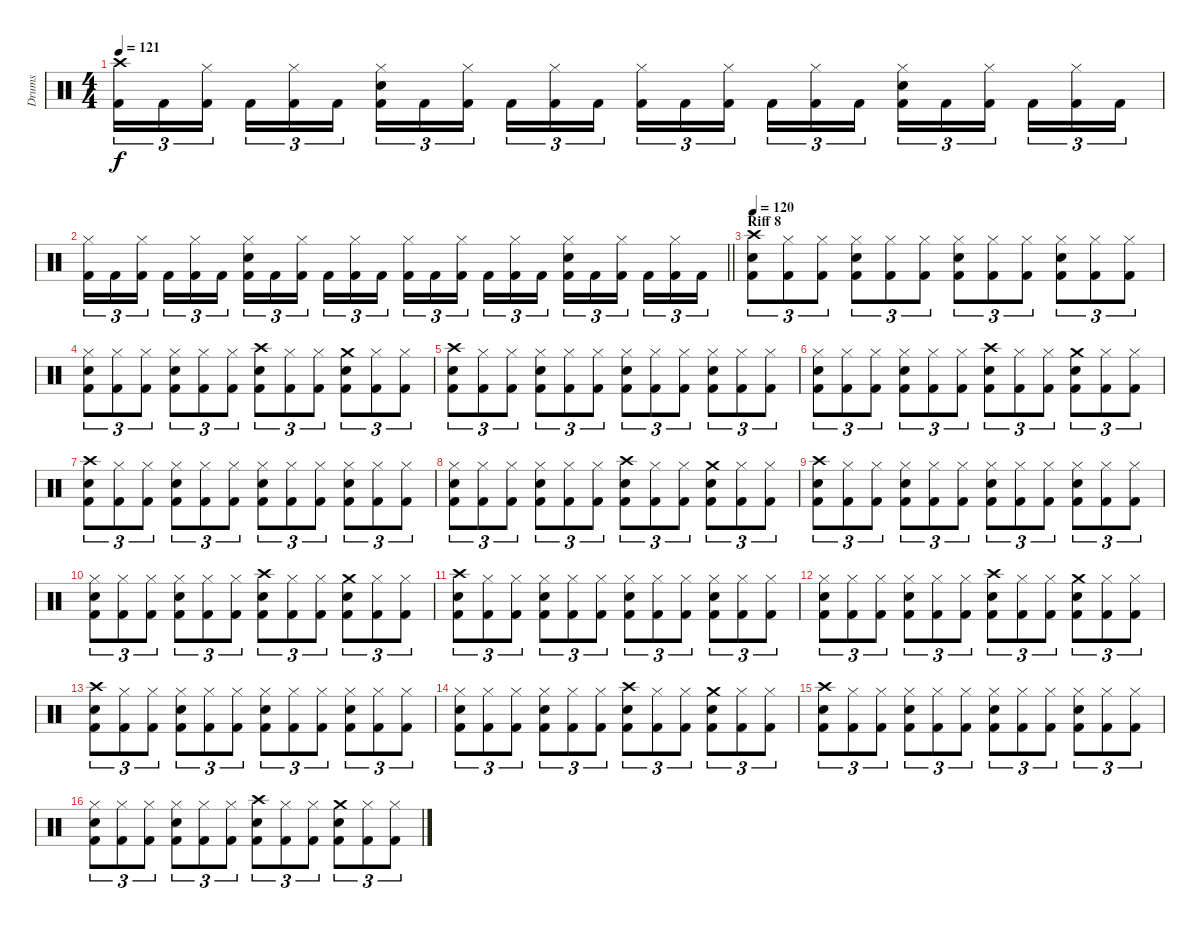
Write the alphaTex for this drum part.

\track ("Drums" "Drums") {instrument percussion}
\staff {score}
\articulation defaults
\ts (4 4)
\tempo 121
\clef neutral
\ks c
("Kick (hit) 2" "Crash high (hit)").16{tu (3 2) dy f} "Kick (hit) 2".16{tu (3 2)} ("Kick (hit) 2" "Hi-Hat (closed)").16{tu (3 2) beam splitsecondary} "Kick (hit) 2".16{tu (3 2)} ("Kick (hit) 2" "Hi-Hat (closed)").16{tu (3 2)} "Kick (hit) 2".16{tu (3 2)} ("Kick (hit) 2" "Hi-Hat (closed)" "Snare (hit) 2").16{tu (3 2)} "Kick (hit) 2".16{tu (3 2)} ("Kick (hit) 2" "Hi-Hat (closed)").16{tu (3 2) beam splitsecondary} "Kick (hit) 2".16{tu (3 2)} ("Kick (hit) 2" "Hi-Hat (closed)").16{tu (3 2)} "Kick (hit) 2".16{tu (3 2)} ("Kick (hit) 2" "Hi-Hat (closed)").16{tu (3 2)} "Kick (hit) 2".16{tu (3 2)} ("Kick (hit) 2" "Hi-Hat (closed)").16{tu (3 2) beam splitsecondary} "Kick (hit) 2".16{tu (3 2)} ("Kick (hit) 2" "Hi-Hat (closed)").16{tu (3 2)} "Kick (hit) 2".16{tu (3 2)} ("Kick (hit) 2" "Hi-Hat (closed)" "Snare (hit) 2").16{tu (3 2)} "Kick (hit) 2".16{tu (3 2)} ("Kick (hit) 2" "Hi-Hat (closed)").16{tu (3 2) beam splitsecondary} "Kick (hit) 2".16{tu (3 2)} ("Kick (hit) 2" "Hi-Hat (closed)").16{tu (3 2)} "Kick (hit) 2".16{tu (3 2)} |
\barLineRight lightlight
("Kick (hit) 2" "Hi-Hat (closed)").16{tu (3 2)} "Kick (hit) 2".16{tu (3 2)} ("Kick (hit) 2" "Hi-Hat (closed)").16{tu (3 2) beam splitsecondary} "Kick (hit) 2".16{tu (3 2)} ("Kick (hit) 2" "Hi-Hat (closed)").16{tu (3 2)} "Kick (hit) 2".16{tu (3 2)} ("Kick (hit) 2" "Hi-Hat (closed)" "Snare (hit) 2").16{tu (3 2)} "Kick (hit) 2".16{tu (3 2)} ("Kick (hit) 2" "Hi-Hat (closed)").16{tu (3 2) beam splitsecondary} "Kick (hit) 2".16{tu (3 2)} ("Kick (hit) 2" "Hi-Hat (closed)").16{tu (3 2)} "Kick (hit) 2".16{tu (3 2)} ("Kick (hit) 2" "Hi-Hat (closed)").16{tu (3 2)} "Kick (hit) 2".16{tu (3 2)} ("Kick (hit) 2" "Hi-Hat (closed)").16{tu (3 2) beam splitsecondary} "Kick (hit) 2".16{tu (3 2)} ("Kick (hit) 2" "Hi-Hat (closed)").16{tu (3 2)} "Kick (hit) 2".16{tu (3 2)} ("Kick (hit) 2" "Hi-Hat (closed)" "Snare (hit) 2").16{tu (3 2)} "Kick (hit) 2".16{tu (3 2)} ("Kick (hit) 2" "Hi-Hat (closed)").16{tu (3 2) beam splitsecondary} "Kick (hit) 2".16{tu (3 2)} ("Kick (hit) 2" "Hi-Hat (closed)").16{tu (3 2)} "Kick (hit) 2".16{tu (3 2)} |
\section ("" "Riff 8")
\tempo 120
("Kick (hit) 2" "Crash high (hit)" "Snare (hit) 2").8{tu (3 2)} ("Kick (hit) 2" "Hi-Hat (closed)").8{tu (3 2)} ("Kick (hit) 2" "Hi-Hat (closed)").8{tu (3 2)} ("Kick (hit) 2" "Snare (hit) 2" "Hi-Hat (closed)").8{tu (3 2)} ("Kick (hit) 2" "Hi-Hat (closed)").8{tu (3 2)} ("Kick (hit) 2" "Hi-Hat (closed)").8{tu (3 2)} ("Kick (hit) 2" "Snare (hit) 2" "Hi-Hat (closed)").8{tu (3 2)} ("Kick (hit) 2" "Hi-Hat (closed)").8{tu (3 2)} ("Kick (hit) 2" "Hi-Hat (closed)").8{tu (3 2)} ("Kick (hit) 2" "Snare (hit) 2" "Hi-Hat (closed)").8{tu (3 2)} ("Kick (hit) 2" "Hi-Hat (closed)").8{tu (3 2)} ("Kick (hit) 2" "Hi-Hat (closed)").8{tu (3 2)} |
("Kick (hit) 2" "Snare (hit) 2" "Hi-Hat (closed)").8{tu (3 2)} ("Kick (hit) 2" "Hi-Hat (closed)").8{tu (3 2)} ("Kick (hit) 2" "Hi-Hat (closed)").8{tu (3 2)} ("Kick (hit) 2" "Snare (hit) 2" "Hi-Hat (closed)").8{tu (3 2)} ("Kick (hit) 2" "Hi-Hat (closed)").8{tu (3 2)} ("Kick (hit) 2" "Hi-Hat (closed)").8{tu (3 2)} ("Kick (hit) 2" "Crash high (hit)" "Snare (hit) 2").8{tu (3 2)} ("Kick (hit) 2" "Hi-Hat (closed)").8{tu (3 2)} ("Kick (hit) 2" "Hi-Hat (closed)").8{tu (3 2)} ("Kick (hit) 2" "Crash medium (hit)" "Snare (hit) 2").8{tu (3 2)} ("Kick (hit) 2" "Hi-Hat (closed)").8{tu (3 2)} ("Kick (hit) 2" "Hi-Hat (closed)").8{tu (3 2)} |
("Kick (hit) 2" "Crash high (hit)" "Snare (hit) 2").8{tu (3 2)} ("Kick (hit) 2" "Hi-Hat (closed)").8{tu (3 2)} ("Kick (hit) 2" "Hi-Hat (closed)").8{tu (3 2)} ("Kick (hit) 2" "Snare (hit) 2" "Hi-Hat (closed)").8{tu (3 2)} ("Kick (hit) 2" "Hi-Hat (closed)").8{tu (3 2)} ("Kick (hit) 2" "Hi-Hat (closed)").8{tu (3 2)} ("Kick (hit) 2" "Snare (hit) 2" "Hi-Hat (closed)").8{tu (3 2)} ("Kick (hit) 2" "Hi-Hat (closed)").8{tu (3 2)} ("Kick (hit) 2" "Hi-Hat (closed)").8{tu (3 2)} ("Kick (hit) 2" "Snare (hit) 2" "Hi-Hat (closed)").8{tu (3 2)} ("Kick (hit) 2" "Hi-Hat (closed)").8{tu (3 2)} ("Kick (hit) 2" "Hi-Hat (closed)").8{tu (3 2)} |
("Kick (hit) 2" "Snare (hit) 2" "Hi-Hat (closed)").8{tu (3 2)} ("Kick (hit) 2" "Hi-Hat (closed)").8{tu (3 2)} ("Kick (hit) 2" "Hi-Hat (closed)").8{tu (3 2)} ("Kick (hit) 2" "Snare (hit) 2" "Hi-Hat (closed)").8{tu (3 2)} ("Kick (hit) 2" "Hi-Hat (closed)").8{tu (3 2)} ("Kick (hit) 2" "Hi-Hat (closed)").8{tu (3 2)} ("Kick (hit) 2" "Crash high (hit)" "Snare (hit) 2").8{tu (3 2)} ("Kick (hit) 2" "Hi-Hat (closed)").8{tu (3 2)} ("Kick (hit) 2" "Hi-Hat (closed)").8{tu (3 2)} ("Kick (hit) 2" "Crash medium (hit)" "Snare (hit) 2").8{tu (3 2)} ("Kick (hit) 2" "Hi-Hat (closed)").8{tu (3 2)} ("Kick (hit) 2" "Hi-Hat (closed)").8{tu (3 2)} |
("Kick (hit) 2" "Crash high (hit)" "Snare (hit) 2").8{tu (3 2)} ("Kick (hit) 2" "Hi-Hat (closed)").8{tu (3 2)} ("Kick (hit) 2" "Hi-Hat (closed)").8{tu (3 2)} ("Kick (hit) 2" "Snare (hit) 2" "Hi-Hat (closed)").8{tu (3 2)} ("Kick (hit) 2" "Hi-Hat (closed)").8{tu (3 2)} ("Kick (hit) 2" "Hi-Hat (closed)").8{tu (3 2)} ("Kick (hit) 2" "Snare (hit) 2" "Hi-Hat (closed)").8{tu (3 2)} ("Kick (hit) 2" "Hi-Hat (closed)").8{tu (3 2)} ("Kick (hit) 2" "Hi-Hat (closed)").8{tu (3 2)} ("Kick (hit) 2" "Snare (hit) 2" "Hi-Hat (closed)").8{tu (3 2)} ("Kick (hit) 2" "Hi-Hat (closed)").8{tu (3 2)} ("Kick (hit) 2" "Hi-Hat (closed)").8{tu (3 2)} |
("Kick (hit) 2" "Snare (hit) 2" "Hi-Hat (closed)").8{tu (3 2)} ("Kick (hit) 2" "Hi-Hat (closed)").8{tu (3 2)} ("Kick (hit) 2" "Hi-Hat (closed)").8{tu (3 2)} ("Kick (hit) 2" "Snare (hit) 2" "Hi-Hat (closed)").8{tu (3 2)} ("Kick (hit) 2" "Hi-Hat (closed)").8{tu (3 2)} ("Kick (hit) 2" "Hi-Hat (closed)").8{tu (3 2)} ("Kick (hit) 2" "Crash high (hit)" "Snare (hit) 2").8{tu (3 2)} ("Kick (hit) 2" "Hi-Hat (closed)").8{tu (3 2)} ("Kick (hit) 2" "Hi-Hat (closed)").8{tu (3 2)} ("Kick (hit) 2" "Crash medium (hit)" "Snare (hit) 2").8{tu (3 2)} ("Kick (hit) 2" "Hi-Hat (closed)").8{tu (3 2)} ("Kick (hit) 2" "Hi-Hat (closed)").8{tu (3 2)} |
("Kick (hit) 2" "Crash high (hit)" "Snare (hit) 2").8{tu (3 2)} ("Kick (hit) 2" "Hi-Hat (closed)").8{tu (3 2)} ("Kick (hit) 2" "Hi-Hat (closed)").8{tu (3 2)} ("Kick (hit) 2" "Snare (hit) 2" "Hi-Hat (closed)").8{tu (3 2)} ("Kick (hit) 2" "Hi-Hat (closed)").8{tu (3 2)} ("Kick (hit) 2" "Hi-Hat (closed)").8{tu (3 2)} ("Kick (hit) 2" "Snare (hit) 2" "Hi-Hat (closed)").8{tu (3 2)} ("Kick (hit) 2" "Hi-Hat (closed)").8{tu (3 2)} ("Kick (hit) 2" "Hi-Hat (closed)").8{tu (3 2)} ("Kick (hit) 2" "Snare (hit) 2" "Hi-Hat (closed)").8{tu (3 2)} ("Kick (hit) 2" "Hi-Hat (closed)").8{tu (3 2)} ("Kick (hit) 2" "Hi-Hat (closed)").8{tu (3 2)} |
("Kick (hit) 2" "Snare (hit) 2" "Hi-Hat (closed)").8{tu (3 2)} ("Kick (hit) 2" "Hi-Hat (closed)").8{tu (3 2)} ("Kick (hit) 2" "Hi-Hat (closed)").8{tu (3 2)} ("Kick (hit) 2" "Snare (hit) 2" "Hi-Hat (closed)").8{tu (3 2)} ("Kick (hit) 2" "Hi-Hat (closed)").8{tu (3 2)} ("Kick (hit) 2" "Hi-Hat (closed)").8{tu (3 2)} ("Kick (hit) 2" "Crash high (hit)" "Snare (hit) 2").8{tu (3 2)} ("Kick (hit) 2" "Hi-Hat (closed)").8{tu (3 2)} ("Kick (hit) 2" "Hi-Hat (closed)").8{tu (3 2)} ("Kick (hit) 2" "Crash medium (hit)" "Snare (hit) 2").8{tu (3 2)} ("Kick (hit) 2" "Hi-Hat (closed)").8{tu (3 2)} ("Kick (hit) 2" "Hi-Hat (closed)").8{tu (3 2)} |
("Kick (hit) 2" "Crash high (hit)" "Snare (hit) 2").8{tu (3 2)} ("Kick (hit) 2" "Hi-Hat (closed)").8{tu (3 2)} ("Kick (hit) 2" "Hi-Hat (closed)").8{tu (3 2)} ("Kick (hit) 2" "Snare (hit) 2" "Hi-Hat (closed)").8{tu (3 2)} ("Kick (hit) 2" "Hi-Hat (closed)").8{tu (3 2)} ("Kick (hit) 2" "Hi-Hat (closed)").8{tu (3 2)} ("Kick (hit) 2" "Snare (hit) 2" "Hi-Hat (closed)").8{tu (3 2)} ("Kick (hit) 2" "Hi-Hat (closed)").8{tu (3 2)} ("Kick (hit) 2" "Hi-Hat (closed)").8{tu (3 2)} ("Kick (hit) 2" "Snare (hit) 2" "Hi-Hat (closed)").8{tu (3 2)} ("Kick (hit) 2" "Hi-Hat (closed)").8{tu (3 2)} ("Kick (hit) 2" "Hi-Hat (closed)").8{tu (3 2)} |
("Kick (hit) 2" "Snare (hit) 2" "Hi-Hat (closed)").8{tu (3 2)} ("Kick (hit) 2" "Hi-Hat (closed)").8{tu (3 2)} ("Kick (hit) 2" "Hi-Hat (closed)").8{tu (3 2)} ("Kick (hit) 2" "Snare (hit) 2" "Hi-Hat (closed)").8{tu (3 2)} ("Kick (hit) 2" "Hi-Hat (closed)").8{tu (3 2)} ("Kick (hit) 2" "Hi-Hat (closed)").8{tu (3 2)} ("Kick (hit) 2" "Crash high (hit)" "Snare (hit) 2").8{tu (3 2)} ("Kick (hit) 2" "Hi-Hat (closed)").8{tu (3 2)} ("Kick (hit) 2" "Hi-Hat (closed)").8{tu (3 2)} ("Kick (hit) 2" "Crash medium (hit)" "Snare (hit) 2").8{tu (3 2)} ("Kick (hit) 2" "Hi-Hat (closed)").8{tu (3 2)} ("Kick (hit) 2" "Hi-Hat (closed)").8{tu (3 2)} |
("Kick (hit) 2" "Crash high (hit)" "Snare (hit) 2").8{tu (3 2)} ("Kick (hit) 2" "Hi-Hat (closed)").8{tu (3 2)} ("Kick (hit) 2" "Hi-Hat (closed)").8{tu (3 2)} ("Kick (hit) 2" "Snare (hit) 2" "Hi-Hat (closed)").8{tu (3 2)} ("Kick (hit) 2" "Hi-Hat (closed)").8{tu (3 2)} ("Kick (hit) 2" "Hi-Hat (closed)").8{tu (3 2)} ("Kick (hit) 2" "Snare (hit) 2" "Hi-Hat (closed)").8{tu (3 2)} ("Kick (hit) 2" "Hi-Hat (closed)").8{tu (3 2)} ("Kick (hit) 2" "Hi-Hat (closed)").8{tu (3 2)} ("Kick (hit) 2" "Snare (hit) 2" "Hi-Hat (closed)").8{tu (3 2)} ("Kick (hit) 2" "Hi-Hat (closed)").8{tu (3 2)} ("Kick (hit) 2" "Hi-Hat (closed)").8{tu (3 2)} |
("Kick (hit) 2" "Snare (hit) 2" "Hi-Hat (closed)").8{tu (3 2)} ("Kick (hit) 2" "Hi-Hat (closed)").8{tu (3 2)} ("Kick (hit) 2" "Hi-Hat (closed)").8{tu (3 2)} ("Kick (hit) 2" "Snare (hit) 2" "Hi-Hat (closed)").8{tu (3 2)} ("Kick (hit) 2" "Hi-Hat (closed)").8{tu (3 2)} ("Kick (hit) 2" "Hi-Hat (closed)").8{tu (3 2)} ("Kick (hit) 2" "Crash high (hit)" "Snare (hit) 2").8{tu (3 2)} ("Kick (hit) 2" "Hi-Hat (closed)").8{tu (3 2)} ("Kick (hit) 2" "Hi-Hat (closed)").8{tu (3 2)} ("Kick (hit) 2" "Crash medium (hit)" "Snare (hit) 2").8{tu (3 2)} ("Kick (hit) 2" "Hi-Hat (closed)").8{tu (3 2)} ("Kick (hit) 2" "Hi-Hat (closed)").8{tu (3 2)} |
("Kick (hit) 2" "Crash high (hit)" "Snare (hit) 2").8{tu (3 2)} ("Kick (hit) 2" "Hi-Hat (closed)").8{tu (3 2)} ("Kick (hit) 2" "Hi-Hat (closed)").8{tu (3 2)} ("Kick (hit) 2" "Snare (hit) 2" "Hi-Hat (closed)").8{tu (3 2)} ("Kick (hit) 2" "Hi-Hat (closed)").8{tu (3 2)} ("Kick (hit) 2" "Hi-Hat (closed)").8{tu (3 2)} ("Kick (hit) 2" "Snare (hit) 2" "Hi-Hat (closed)").8{tu (3 2)} ("Kick (hit) 2" "Hi-Hat (closed)").8{tu (3 2)} ("Kick (hit) 2" "Hi-Hat (closed)").8{tu (3 2)} ("Kick (hit) 2" "Snare (hit) 2" "Hi-Hat (closed)").8{tu (3 2)} ("Kick (hit) 2" "Hi-Hat (closed)").8{tu (3 2)} ("Kick (hit) 2" "Hi-Hat (closed)").8{tu (3 2)} |
("Kick (hit) 2" "Snare (hit) 2" "Hi-Hat (closed)").8{tu (3 2)} ("Kick (hit) 2" "Hi-Hat (closed)").8{tu (3 2)} ("Kick (hit) 2" "Hi-Hat (closed)").8{tu (3 2)} ("Kick (hit) 2" "Snare (hit) 2" "Hi-Hat (closed)").8{tu (3 2)} ("Kick (hit) 2" "Hi-Hat (closed)").8{tu (3 2)} ("Kick (hit) 2" "Hi-Hat (closed)").8{tu (3 2)} ("Kick (hit) 2" "Crash high (hit)" "Snare (hit) 2").8{tu (3 2)} ("Kick (hit) 2" "Hi-Hat (closed)").8{tu (3 2)} ("Kick (hit) 2" "Hi-Hat (closed)").8{tu (3 2)} ("Kick (hit) 2" "Crash medium (hit)" "Snare (hit) 2").8{tu (3 2)} ("Kick (hit) 2" "Hi-Hat (closed)").8{tu (3 2)} ("Kick (hit) 2" "Hi-Hat (closed)").8{tu (3 2)}
